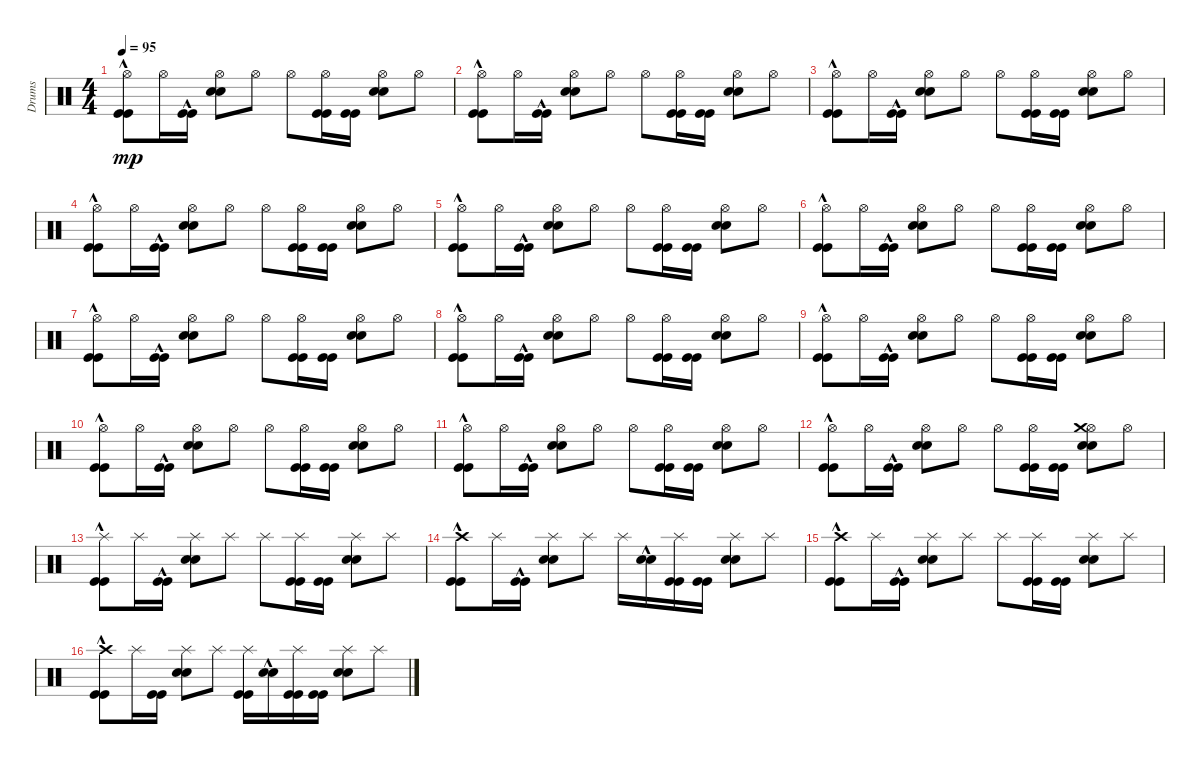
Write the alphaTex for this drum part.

\track ("Drums" "Drums") {instrument percussion}
\staff {score}
\articulation defaults
\ts (4 4)
\tempo 95
\clef neutral
\ks c
("Kick (hit)"{hac} "Kick (hit)"{hac} "Hi-Hat (open)").8{dy mp} "Hi-Hat (open)".16 ("Kick (hit)"{hac} "Kick (hit)"{hac}).16 ("Snare (hit) 2" "Snare (hit) 2" "Hi-Hat (open)").8 "Hi-Hat (open)".8 "Hi-Hat (open)".8 ("Kick (hit)" "Kick (hit)" "Hi-Hat (open)").16 ("Kick (hit)" "Kick (hit)").16 ("Snare (hit) 2" "Snare (hit) 2" "Hi-Hat (open)").8 "Hi-Hat (open)".8 |
("Kick (hit)"{hac} "Kick (hit)"{hac} "Hi-Hat (open)").8 "Hi-Hat (open)".16 ("Kick (hit)"{hac} "Kick (hit)"{hac}).16 ("Snare (hit) 2" "Snare (hit) 2" "Hi-Hat (open)").8 "Hi-Hat (open)".8 "Hi-Hat (open)".8 ("Kick (hit)" "Kick (hit)" "Hi-Hat (open)").16 ("Kick (hit)" "Kick (hit)").16 ("Snare (hit) 2" "Snare (hit) 2" "Hi-Hat (open)").8 "Hi-Hat (open)".8 |
("Kick (hit)"{hac} "Kick (hit)"{hac} "Hi-Hat (open)").8 "Hi-Hat (open)".16 ("Kick (hit)"{hac} "Kick (hit)"{hac}).16 ("Snare (hit) 2" "Snare (hit) 2" "Hi-Hat (open)").8 "Hi-Hat (open)".8 "Hi-Hat (open)".8 ("Kick (hit)" "Kick (hit)" "Hi-Hat (open)").16 ("Kick (hit)" "Kick (hit)").16 ("Snare (hit) 2" "Snare (hit) 2" "Hi-Hat (open)").8 "Hi-Hat (open)".8 |
("Kick (hit)"{hac} "Kick (hit)"{hac} "Hi-Hat (open)").8 "Hi-Hat (open)".16 ("Kick (hit)"{hac} "Kick (hit)"{hac}).16 ("Snare (hit) 2" "Snare (hit) 2" "Hi-Hat (open)").8 "Hi-Hat (open)".8 "Hi-Hat (open)".8 ("Kick (hit)" "Kick (hit)" "Hi-Hat (open)").16 ("Kick (hit)" "Kick (hit)").16 ("Snare (hit) 2" "Snare (hit) 2" "Hi-Hat (open)").8 "Hi-Hat (open)".8 |
("Kick (hit)"{hac} "Kick (hit)"{hac} "Hi-Hat (open)").8 "Hi-Hat (open)".16 ("Kick (hit)"{hac} "Kick (hit)"{hac}).16 ("Snare (hit) 2" "Snare (hit) 2" "Hi-Hat (open)").8 "Hi-Hat (open)".8 "Hi-Hat (open)".8 ("Kick (hit)" "Kick (hit)" "Hi-Hat (open)").16 ("Kick (hit)" "Kick (hit)").16 ("Snare (hit) 2" "Snare (hit) 2" "Hi-Hat (open)").8 "Hi-Hat (open)".8 |
("Kick (hit)"{hac} "Kick (hit)"{hac} "Hi-Hat (open)").8 "Hi-Hat (open)".16 ("Kick (hit)"{hac} "Kick (hit)"{hac}).16 ("Snare (hit) 2" "Snare (hit) 2" "Hi-Hat (open)").8 "Hi-Hat (open)".8 "Hi-Hat (open)".8 ("Kick (hit)" "Kick (hit)" "Hi-Hat (open)").16 ("Kick (hit)" "Kick (hit)").16 ("Snare (hit) 2" "Snare (hit) 2" "Hi-Hat (open)").8 "Hi-Hat (open)".8 |
("Kick (hit)"{hac} "Kick (hit)"{hac} "Hi-Hat (open)").8 "Hi-Hat (open)".16 ("Kick (hit)"{hac} "Kick (hit)"{hac}).16 ("Snare (hit) 2" "Snare (hit) 2" "Hi-Hat (open)").8 "Hi-Hat (open)".8 "Hi-Hat (open)".8 ("Kick (hit)" "Kick (hit)" "Hi-Hat (open)").16 ("Kick (hit)" "Kick (hit)").16 ("Snare (hit) 2" "Snare (hit) 2" "Hi-Hat (open)").8 "Hi-Hat (open)".8 |
("Kick (hit)"{hac} "Kick (hit)"{hac} "Hi-Hat (open)").8 "Hi-Hat (open)".16 ("Kick (hit)"{hac} "Kick (hit)"{hac}).16 ("Snare (hit) 2" "Snare (hit) 2" "Hi-Hat (open)").8 "Hi-Hat (open)".8 "Hi-Hat (open)".8 ("Kick (hit)" "Kick (hit)" "Hi-Hat (open)").16 ("Kick (hit)" "Kick (hit)").16 ("Snare (hit) 2" "Snare (hit) 2" "Hi-Hat (open)").8 "Hi-Hat (open)".8 |
("Kick (hit)"{hac} "Kick (hit)"{hac} "Hi-Hat (open)").8 "Hi-Hat (open)".16 ("Kick (hit)"{hac} "Kick (hit)"{hac}).16 ("Snare (hit) 2" "Snare (hit) 2" "Hi-Hat (open)").8 "Hi-Hat (open)".8 "Hi-Hat (open)".8 ("Kick (hit)" "Kick (hit)" "Hi-Hat (open)").16 ("Kick (hit)" "Kick (hit)").16 ("Snare (hit) 2" "Snare (hit) 2" "Hi-Hat (open)").8 "Hi-Hat (open)".8 |
("Kick (hit)"{hac} "Kick (hit)"{hac} "Hi-Hat (open)").8 "Hi-Hat (open)".16 ("Kick (hit)"{hac} "Kick (hit)"{hac}).16 ("Snare (hit) 2" "Snare (hit) 2" "Hi-Hat (open)").8 "Hi-Hat (open)".8 "Hi-Hat (open)".8 ("Kick (hit)" "Kick (hit)" "Hi-Hat (open)").16 ("Kick (hit)" "Kick (hit)").16 ("Snare (hit) 2" "Snare (hit) 2" "Hi-Hat (open)").8 "Hi-Hat (open)".8 |
("Kick (hit)"{hac} "Kick (hit)"{hac} "Hi-Hat (open)").8 "Hi-Hat (open)".16 ("Kick (hit)"{hac} "Kick (hit)"{hac}).16 ("Snare (hit) 2" "Snare (hit) 2" "Hi-Hat (open)").8 "Hi-Hat (open)".8 "Hi-Hat (open)".8 ("Kick (hit)" "Kick (hit)" "Hi-Hat (open)").16 ("Kick (hit)" "Kick (hit)").16 ("Snare (hit) 2" "Snare (hit) 2" "Hi-Hat (open)").8 "Hi-Hat (open)".8 |
("Kick (hit)"{hac} "Kick (hit)"{hac} "Hi-Hat (open)").8 "Hi-Hat (open)".16 ("Kick (hit)"{hac} "Kick (hit)"{hac}).16 ("Snare (hit) 2" "Snare (hit) 2" "Hi-Hat (open)").8 "Hi-Hat (open)".8 "Hi-Hat (open)".8 ("Kick (hit)" "Kick (hit)" "Hi-Hat (open)").16 ("Kick (hit)" "Kick (hit)").16 ("Snare (hit) 2" "Snare (hit) 2" "Hi-Hat (open)" "Crash medium (hit)").8 "Hi-Hat (open)".8 |
("Kick (hit)"{hac} "Kick (hit)"{hac} "Splash (hit)").8 "Splash (hit)".16 ("Kick (hit)"{hac} "Kick (hit)"{hac}).16 ("Snare (hit) 2" "Snare (hit) 2" "Splash (hit)").8 "Splash (hit)".8 "Splash (hit)".8 ("Kick (hit)" "Kick (hit)" "Splash (hit)").16 ("Kick (hit)" "Kick (hit)").16 ("Snare (hit) 2" "Snare (hit) 2" "Splash (hit)").8 "Splash (hit)".8 |
("Kick (hit)"{hac} "Kick (hit)"{hac} "Crash high (hit)").8 "Splash (hit)".16 ("Kick (hit)"{hac} "Kick (hit)"{hac}).16 ("Snare (hit) 2" "Snare (hit) 2" "Splash (hit)").8 "Splash (hit)".8 "Splash (hit)".16 ("Snare (hit) 2"{hac} "Snare (hit) 2"{hac}).16 ("Kick (hit)" "Kick (hit)" "Splash (hit)").16 ("Kick (hit)" "Kick (hit)").16 ("Snare (hit) 2" "Snare (hit) 2" "Splash (hit)").8 "Splash (hit)".8 |
("Kick (hit)"{hac} "Kick (hit)"{hac} "Crash high (hit)").8 "Splash (hit)".16 ("Kick (hit)"{hac} "Kick (hit)"{hac}).16 ("Snare (hit) 2" "Snare (hit) 2" "Splash (hit)").8 "Splash (hit)".8 "Splash (hit)".8 ("Kick (hit)" "Kick (hit)" "Splash (hit)").16 ("Kick (hit)" "Kick (hit)").16 ("Snare (hit) 2" "Snare (hit) 2" "Splash (hit)").8 "Splash (hit)".8 |
("Kick (hit)"{hac} "Kick (hit)"{hac} "Crash high (hit)").8 "Splash (hit)".16 ("Kick (hit)" "Kick (hit)").16 ("Snare (hit) 2" "Snare (hit) 2" "Splash (hit)").8 "Splash (hit)".8 ("Kick (hit)" "Kick (hit)" "Splash (hit)").16 ("Snare (hit) 2"{hac} "Snare (hit) 2"{hac}).16 ("Kick (hit)" "Kick (hit)" "Splash (hit)").16 ("Kick (hit)" "Kick (hit)").16 ("Snare (hit) 2" "Snare (hit) 2" "Splash (hit)").8 "Splash (hit)".8
